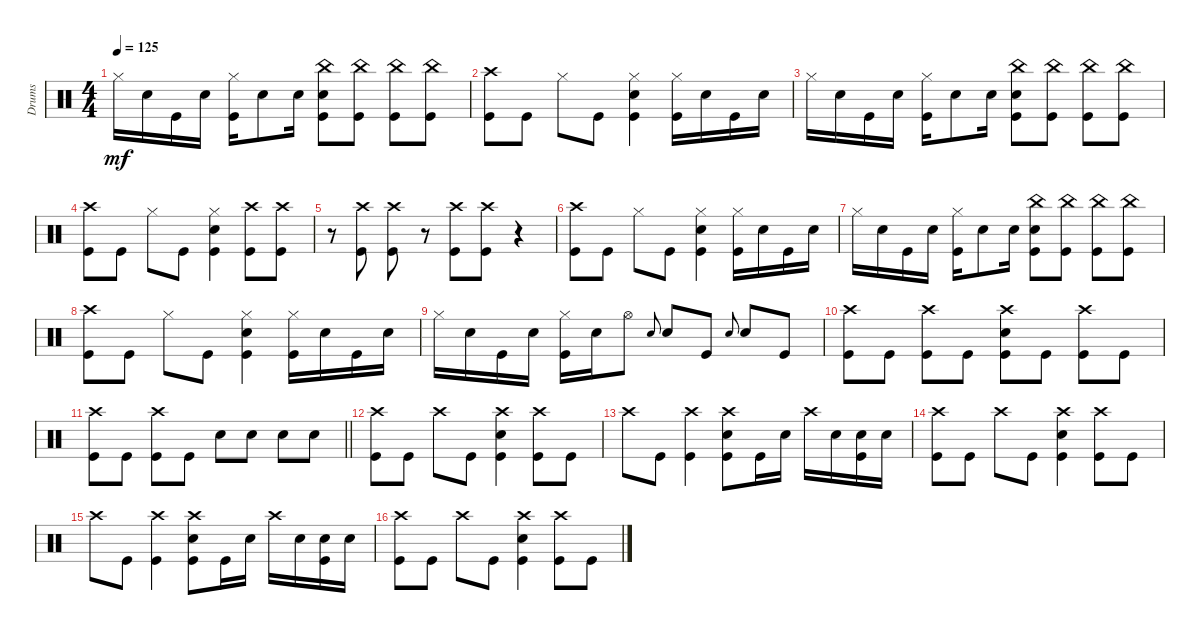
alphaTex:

\track ("Drums" "Drums") {instrument percussion}
\staff {score}
\articulation defaults
\ts (4 4)
\tempo 125
\clef neutral
\ks c "Hi-Hat (closed)".16{dy mf} "Snare (hit) 2".16 "Kick (hit)".16 "Snare (hit) 2".16
("Kick (hit)" "Hi-Hat (closed)").16 "Snare (hit) 2".8 "Snare (hit) 2".16 ("Snare (hit) 2" "China (hit)" "Kick (hit)").8 ("China (hit)" "Kick (hit)").8 ("China (hit)" "Kick (hit)").8 ("China (hit)" "Kick (hit)").8 |
("Kick (hit)" "Crash high (hit)").8 "Kick (hit)".8 "Hi-Hat (closed)".8 "Kick (hit)".8 ("Kick (hit)" "Snare (hit) 2" "Hi-Hat (closed)").4 ("Kick (hit)" "Hi-Hat (closed)").16 "Snare (hit) 2".16 "Kick (hit)".16 "Snare (hit) 2".16 |
"Hi-Hat (closed)".16 "Snare (hit) 2".16 "Kick (hit)".16 "Snare (hit) 2".16 ("Kick (hit)" "Hi-Hat (closed)").16 "Snare (hit) 2".8 "Snare (hit) 2".16 ("Snare (hit) 2" "China (hit)" "Kick (hit)").8 ("China (hit)" "Kick (hit)").8 ("China (hit)" "Kick (hit)").8 ("China (hit)" "Kick (hit)").8 |
("Kick (hit)" "Crash high (hit)").8 "Kick (hit)".8 "Hi-Hat (closed)".8 "Kick (hit)".8 ("Kick (hit)" "Snare (hit) 2" "Hi-Hat (closed)").4 ("Kick (hit)" "Crash high (hit)").8 ("Crash high (hit)" "Kick (hit)").8 |
r.8 ("Kick (hit)" "Crash high (hit)").8 ("Crash high (hit)" "Kick (hit)").8 r.8 ("Crash high (hit)" "Kick (hit)").8 ("Kick (hit)" "Crash high (hit)").8 r.4 |
("Kick (hit)" "Crash high (hit)").8 "Kick (hit)".8 "Hi-Hat (closed)".8 "Kick (hit)".8 ("Kick (hit)" "Snare (hit) 2" "Hi-Hat (closed)").4 ("Kick (hit)" "Hi-Hat (closed)").16 "Snare (hit) 2".16 "Kick (hit)".16 "Snare (hit) 2".16 |
"Hi-Hat (closed)".16 "Snare (hit) 2".16 "Kick (hit)".16 "Snare (hit) 2".16 ("Kick (hit)" "Hi-Hat (closed)").16 "Snare (hit) 2".8 "Snare (hit) 2".16 ("Snare (hit) 2" "China (hit)" "Kick (hit)").8 ("China (hit)" "Kick (hit)").8 ("China (hit)" "Kick (hit)").8 ("China (hit)" "Kick (hit)").8 |
("Crash high (hit)" "Kick (hit)").8 "Kick (hit)".8 "Hi-Hat (closed)".8 "Kick (hit)".8 ("Snare (hit) 2" "Hi-Hat (closed)" "Kick (hit)").4 ("Hi-Hat (closed)" "Kick (hit)").16 "Snare (hit) 2".16 "Kick (hit)".16 "Snare (hit) 2".16 |
"Hi-Hat (closed)".16 "Snare (hit) 2".16 "Kick (hit)".16 "Snare (hit) 2".16 ("Hi-Hat (closed)" "Kick (hit)").16 "Snare (hit) 2".16 "Hi-Hat (open)".8 "Snare (hit) 2".8{gr onbeat} "Snare (hit) 2".8{volume 9} "Kick (hit)".8 "Snare (hit) 2".8{gr onbeat} "Snare (hit) 2".8 "Kick (hit)".8 |
("Crash high (hit)" "Kick (hit)").8 "Kick (hit)".8 ("Crash high (hit)" "Kick (hit)").8 "Kick (hit)".8 ("Snare (hit) 2" "Crash high (hit)" "Kick (hit)").8 "Kick (hit)".8 ("Crash high (hit)" "Kick (hit)").8 "Kick (hit)".8 |
\barLineRight lightlight
("Crash high (hit)" "Kick (hit)").8 "Kick (hit)".8 ("Crash high (hit)" "Kick (hit)").8 "Kick (hit)".8 "Snare (hit) 2".8 "Snare (hit) 2".8 "Snare (hit) 2".8 "Snare (hit) 2".8 |
("Kick (hit)" "Crash high (hit)").8 "Kick (hit)".8 "Crash high (hit)".8 "Kick (hit)".8 ("Kick (hit)" "Snare (hit) 2" "Crash high (hit)").4 ("Kick (hit)" "Crash high (hit)").8 "Kick (hit)".8 |
"Crash high (hit)".8 "Kick (hit)".8 ("Kick (hit)" "Crash high (hit)").4 ("Kick (hit)" "Snare (hit) 2" "Crash high (hit)").8 "Kick (hit)".16 "Snare (hit) 2".16 "Crash high (hit)".16 "Snare (hit) 2".16 ("Snare (hit) 2" "Kick (hit)").16 "Snare (hit) 2".16 |
("Crash high (hit)" "Kick (hit)").8 "Kick (hit)".8 "Crash high (hit)".8 "Kick (hit)".8 ("Snare (hit) 2" "Crash high (hit)" "Kick (hit)").4 ("Crash high (hit)" "Kick (hit)").8 "Kick (hit)".8 |
"Crash high (hit)".8 "Kick (hit)".8 ("Kick (hit)" "Crash high (hit)").4 ("Kick (hit)" "Snare (hit) 2" "Crash high (hit)").8 "Kick (hit)".16 "Snare (hit) 2".16 "Crash high (hit)".16 "Snare (hit) 2".16 ("Kick (hit)" "Snare (hit) 2").16 "Snare (hit) 2".16 |
("Crash high (hit)" "Kick (hit)").8 "Kick (hit)".8 "Crash high (hit)".8 "Kick (hit)".8 ("Snare (hit) 2" "Crash high (hit)" "Kick (hit)").4 ("Crash high (hit)" "Kick (hit)").8 "Kick (hit)".8
